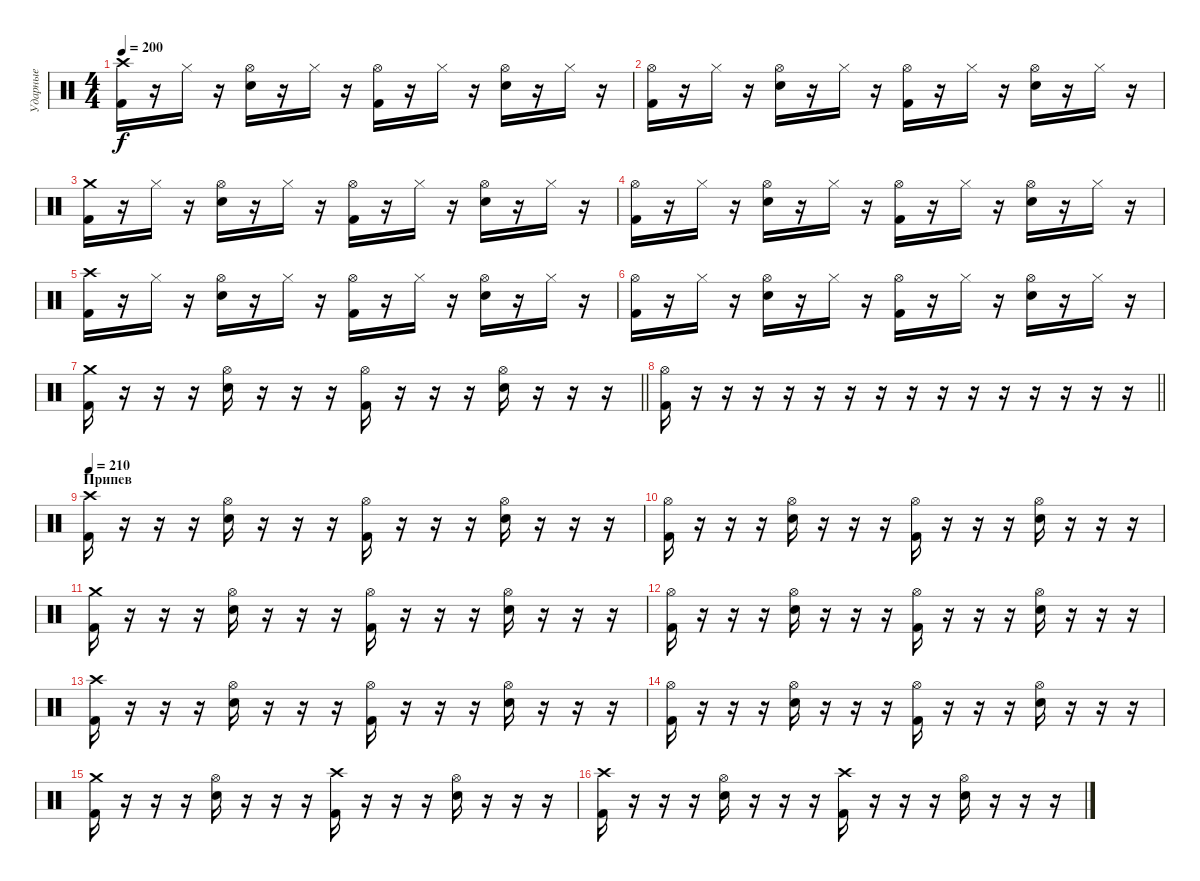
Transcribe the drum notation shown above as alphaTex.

\track ("Ударные" "Ударные") {instrument percussion}
\staff {score}
\articulation defaults
\ts (4 4)
\tempo 200
\clef neutral
\ks c
("Kick (hit) 2" "Crash high (hit)").16{dy f} r.16 "Hi-Hat (closed)".16 r.16 ("Electric Snare (hit)" "Hi-Hat (open)").16 r.16 "Hi-Hat (closed)".16 r.16 ("Kick (hit) 2" "Hi-Hat (open)").16 r.16 "Hi-Hat (closed)".16 r.16 ("Electric Snare (hit)" "Hi-Hat (open)").16 r.16 "Hi-Hat (closed)".16 r.16 |
("Kick (hit) 2" "Hi-Hat (open)").16 r.16 "Hi-Hat (closed)".16 r.16 ("Electric Snare (hit)" "Hi-Hat (open)").16 r.16 "Hi-Hat (closed)".16 r.16 ("Kick (hit) 2" "Hi-Hat (open)").16 r.16 "Hi-Hat (closed)".16 r.16 ("Electric Snare (hit)" "Hi-Hat (open)").16 r.16 "Hi-Hat (closed)".16 r.16 |
("Kick (hit) 2" "Crash medium (hit)").16 r.16 "Hi-Hat (closed)".16 r.16 ("Electric Snare (hit)" "Hi-Hat (open)").16 r.16 "Hi-Hat (closed)".16 r.16 ("Kick (hit) 2" "Hi-Hat (open)").16 r.16 "Hi-Hat (closed)".16 r.16 ("Electric Snare (hit)" "Hi-Hat (open)").16 r.16 "Hi-Hat (closed)".16 r.16 |
("Kick (hit) 2" "Hi-Hat (open)").16 r.16 "Hi-Hat (closed)".16 r.16 ("Electric Snare (hit)" "Hi-Hat (open)").16 r.16 "Hi-Hat (closed)".16 r.16 ("Kick (hit) 2" "Hi-Hat (open)").16 r.16 "Hi-Hat (closed)".16 r.16 ("Electric Snare (hit)" "Hi-Hat (open)").16 r.16 "Hi-Hat (closed)".16 r.16 |
("Kick (hit) 2" "Crash high (hit)").16 r.16 "Hi-Hat (closed)".16 r.16 ("Electric Snare (hit)" "Hi-Hat (open)").16 r.16 "Hi-Hat (closed)".16 r.16 ("Kick (hit) 2" "Hi-Hat (open)").16 r.16 "Hi-Hat (closed)".16 r.16 ("Electric Snare (hit)" "Hi-Hat (open)").16 r.16 "Hi-Hat (closed)".16 r.16 |
("Kick (hit) 2" "Hi-Hat (open)").16 r.16 "Hi-Hat (closed)".16 r.16 ("Electric Snare (hit)" "Hi-Hat (open)").16 r.16 "Hi-Hat (closed)".16 r.16 ("Kick (hit) 2" "Hi-Hat (open)").16 r.16 "Hi-Hat (closed)".16 r.16 ("Electric Snare (hit)" "Hi-Hat (open)").16 r.16 "Hi-Hat (closed)".16 r.16 |
\barLineRight lightlight
("Kick (hit) 2" "Crash medium (hit)").16 r.16 r.16 r.16 ("Electric Snare (hit)" "Hi-Hat (open)").16 r.16 r.16 r.16 ("Kick (hit) 2" "Hi-Hat (open)").16 r.16 r.16 r.16 ("Electric Snare (hit)" "Hi-Hat (open)").16 r.16 r.16 r.16 |
\barLineRight lightlight
("Kick (hit) 2" "Hi-Hat (open)").16 r.16 r.16 r.16 r.16 r.16 r.16 r.16 r.16 r.16 r.16 r.16 r.16 r.16 r.16 r.16 |
\section ("" "Припев")
\tempo 210
("Kick (hit) 2" "Crash high (hit)").16 r.16 r.16 r.16 ("Electric Snare (hit)" "Hi-Hat (open)").16 r.16 r.16 r.16 ("Kick (hit) 2" "Hi-Hat (open)").16 r.16 r.16 r.16 ("Electric Snare (hit)" "Hi-Hat (open)").16 r.16 r.16 r.16 |
("Kick (hit) 2" "Hi-Hat (open)").16 r.16 r.16 r.16 ("Electric Snare (hit)" "Hi-Hat (open)").16 r.16 r.16 r.16 ("Kick (hit) 2" "Hi-Hat (open)").16 r.16 r.16 r.16 ("Electric Snare (hit)" "Hi-Hat (open)").16 r.16 r.16 r.16 |
("Kick (hit) 2" "Crash medium (hit)").16 r.16 r.16 r.16 ("Electric Snare (hit)" "Hi-Hat (open)").16 r.16 r.16 r.16 ("Kick (hit) 2" "Hi-Hat (open)").16 r.16 r.16 r.16 ("Electric Snare (hit)" "Hi-Hat (open)").16 r.16 r.16 r.16 |
("Kick (hit) 2" "Hi-Hat (open)").16 r.16 r.16 r.16 ("Electric Snare (hit)" "Hi-Hat (open)").16 r.16 r.16 r.16 ("Kick (hit) 2" "Hi-Hat (open)").16 r.16 r.16 r.16 ("Electric Snare (hit)" "Hi-Hat (open)").16 r.16 r.16 r.16 |
("Kick (hit) 2" "Crash high (hit)").16 r.16 r.16 r.16 ("Electric Snare (hit)" "Hi-Hat (open)").16 r.16 r.16 r.16 ("Kick (hit) 2" "Hi-Hat (open)").16 r.16 r.16 r.16 ("Electric Snare (hit)" "Hi-Hat (open)").16 r.16 r.16 r.16 |
("Kick (hit) 2" "Hi-Hat (open)").16 r.16 r.16 r.16 ("Electric Snare (hit)" "Hi-Hat (open)").16 r.16 r.16 r.16 ("Kick (hit) 2" "Hi-Hat (open)").16 r.16 r.16 r.16 ("Electric Snare (hit)" "Hi-Hat (open)").16 r.16 r.16 r.16 |
("Kick (hit) 2" "Crash medium (hit)").16 r.16 r.16 r.16 ("Electric Snare (hit)" "Hi-Hat (open)").16 r.16 r.16 r.16 ("Crash high (hit)" "Kick (hit) 2").16 r.16 r.16 r.16 ("Electric Snare (hit)" "Hi-Hat (open)").16 r.16 r.16 r.16 |
("Kick (hit) 2" "Crash high (hit)").16 r.16 r.16 r.16 ("Electric Snare (hit)" "Hi-Hat (open)").16 r.16 r.16 r.16 ("Kick (hit) 2" "Crash high (hit)").16 r.16 r.16 r.16 ("Electric Snare (hit)" "Hi-Hat (open)").16 r.16 r.16 r.16
